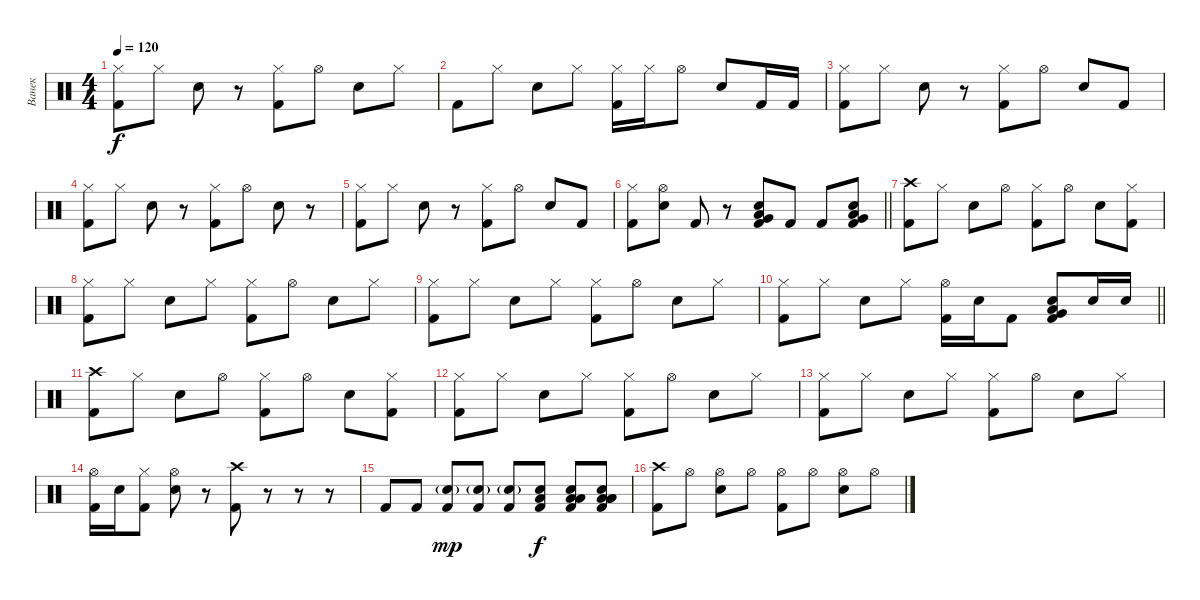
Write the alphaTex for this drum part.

\track ("Ванек" "Ванек") {instrument percussion}
\staff {score}
\articulation defaults
\ts (4 4)
\tempo 120
\clef neutral
\ks c
("Hi-Hat (closed)" "Kick (hit) 2").8{dy f} "Hi-Hat (closed)".8 "Electric Snare (hit)".8 r.8 ("Hi-Hat (closed)" "Kick (hit) 2").8 "Hi-Hat (open)".8 "Electric Snare (hit)".8 "Hi-Hat (closed)".8 |
"Kick (hit) 2".8 "Hi-Hat (closed)".8 "Electric Snare (hit)".8 "Hi-Hat (closed)".8 ("Hi-Hat (closed)" "Kick (hit) 2").16 "Hi-Hat (closed)".16 "Hi-Hat (open)".8 "Electric Snare (hit)".8 "Kick (hit) 2".16 "Kick (hit) 2".16 |
("Hi-Hat (closed)" "Kick (hit) 2").8 "Hi-Hat (closed)".8 "Electric Snare (hit)".8 r.8 ("Hi-Hat (closed)" "Kick (hit) 2").8 "Hi-Hat (open)".8 "Electric Snare (hit)".8 "Kick (hit) 2".8 |
("Hi-Hat (closed)" "Kick (hit) 2").8 "Hi-Hat (closed)".8 "Electric Snare (hit)".8 r.8 ("Hi-Hat (closed)" "Kick (hit) 2").8 "Hi-Hat (open)".8 "Electric Snare (hit)".8 r.8 |
("Hi-Hat (closed)" "Kick (hit) 2").8 "Hi-Hat (closed)".8 "Electric Snare (hit)".8 r.8 ("Hi-Hat (closed)" "Kick (hit) 2").8 "Hi-Hat (open)".8 "Electric Snare (hit)".8 "Kick (hit) 2".8 |
\barLineRight lightlight
("Hi-Hat (closed)" "Kick (hit) 2").8 ("Hi-Hat (open)" "Electric Snare (hit)").8 "Kick (hit) 2".8 r.8 ("Electric Snare (hit)" "Low Tom (hit)" "Very Low Tom (hit)" "Kick (hit) 2").8 "Kick (hit) 2".8 "Kick (hit) 2".8 ("Electric Snare (hit)" "Low Tom (hit)" "Very Low Tom (hit)" "Kick (hit) 2").8 |
("Crash high (hit)" "Kick (hit) 2").8 "Hi-Hat (closed)".8 "Electric Snare (hit)".8 "Hi-Hat (open)".8 ("Hi-Hat (closed)" "Kick (hit) 2").8 "Hi-Hat (open)".8 "Electric Snare (hit)".8 ("Hi-Hat (closed)" "Kick (hit) 2").8 |
("Hi-Hat (closed)" "Kick (hit) 2").8 "Hi-Hat (closed)".8 "Electric Snare (hit)".8 "Hi-Hat (closed)".8 ("Hi-Hat (closed)" "Kick (hit) 2").8 "Hi-Hat (open)".8 "Electric Snare (hit)".8 "Hi-Hat (closed)".8 |
("Hi-Hat (closed)" "Kick (hit) 2").8 "Hi-Hat (closed)".8 "Electric Snare (hit)".8 "Hi-Hat (closed)".8 ("Hi-Hat (closed)" "Kick (hit) 2").8 "Hi-Hat (open)".8 "Electric Snare (hit)".8 "Hi-Hat (closed)".8 |
\barLineRight lightlight
("Hi-Hat (closed)" "Kick (hit) 2").8 "Hi-Hat (closed)".8 "Electric Snare (hit)".8 "Hi-Hat (closed)".8 ("Hi-Hat (open)" "Kick (hit) 2").16 "Electric Snare (hit)".16 "Kick (hit) 2".8 ("Low Tom (hit)" "Very Low Tom (hit)" "Electric Snare (hit)" "Kick (hit) 2").8 "Electric Snare (hit)".16 "Electric Snare (hit)".16 |
("Crash high (hit)" "Kick (hit) 2").8 "Hi-Hat (closed)".8 "Electric Snare (hit)".8 "Hi-Hat (open)".8 ("Hi-Hat (closed)" "Kick (hit) 2").8 "Hi-Hat (open)".8 "Electric Snare (hit)".8 ("Hi-Hat (closed)" "Kick (hit) 2").8 |
("Hi-Hat (closed)" "Kick (hit) 2").8 "Hi-Hat (closed)".8 "Electric Snare (hit)".8 "Hi-Hat (closed)".8 ("Hi-Hat (closed)" "Kick (hit) 2").8 "Hi-Hat (open)".8 "Electric Snare (hit)".8 "Hi-Hat (closed)".8 |
("Hi-Hat (closed)" "Kick (hit) 2").8 "Hi-Hat (closed)".8 "Electric Snare (hit)".8 "Hi-Hat (closed)".8 ("Hi-Hat (closed)" "Kick (hit) 2").8 "Hi-Hat (open)".8 "Electric Snare (hit)".8 "Hi-Hat (closed)".8 |
("Hi-Hat (open)" "Kick (hit) 2").16 "Electric Snare (hit)".16 ("Hi-Hat (closed)" "Kick (hit) 2").8 ("Hi-Hat (open)" "Electric Snare (hit)").8 r.8 ("Crash high (hit)" "Kick (hit) 2").8 r.8 r.8 r.8 |
"Kick (hit) 2".8 "Kick (hit) 2".8 ("Electric Snare (hit)"{g} "Kick (hit) 2").8{dy mp} ("Electric Snare (hit)"{g} "Kick (hit) 2").8 ("Electric Snare (hit)"{g} "Kick (hit) 2").8 ("Electric Snare (hit)" "Low Tom (hit)" "Kick (hit) 2").8{dy f} ("Electric Snare (hit)" "Low Tom (hit)" "Low Tom (hit)" "Kick (hit) 2").8 ("Electric Snare (hit)" "Low Tom (hit)" "Low Tom (hit)" "Low Tom (hit)" "Kick (hit) 2").8 |
("Crash high (hit)" "Kick (hit) 2").8 "Hi-Hat (open)".8 ("Hi-Hat (open)" "Electric Snare (hit)").8 "Hi-Hat (open)".8 ("Hi-Hat (open)" "Kick (hit) 2").8 "Hi-Hat (open)".8 ("Hi-Hat (open)" "Electric Snare (hit)").8 "Hi-Hat (open)".8
